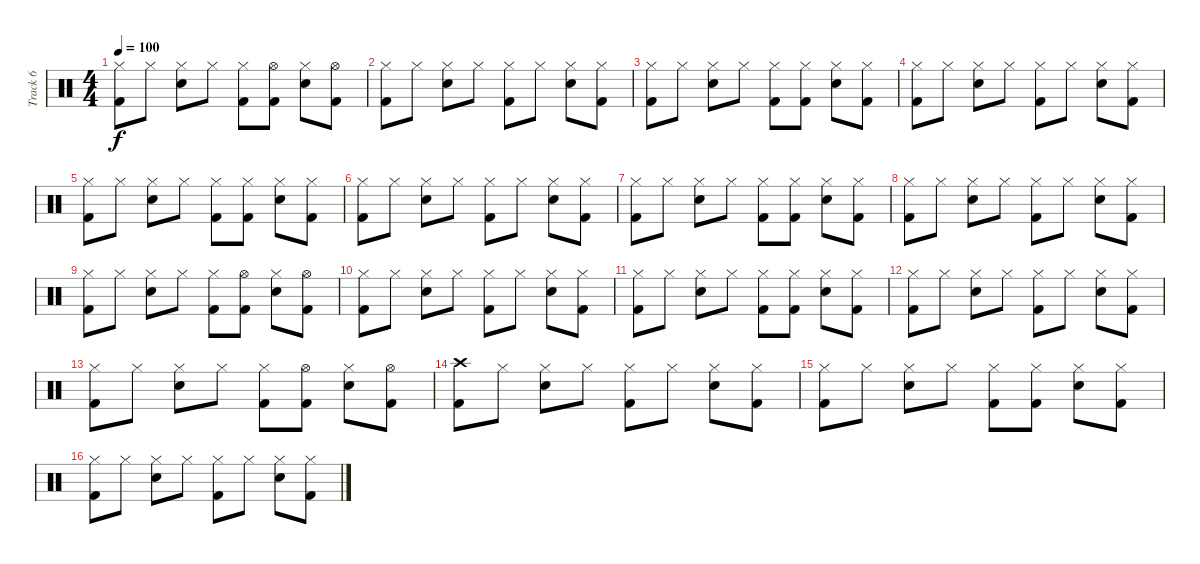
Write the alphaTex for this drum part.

\track ("Track 6" "Track 6") {instrument percussion}
\staff {score}
\articulation defaults
\ts (4 4)
\tempo 100
\clef neutral
\ks c
("Hi-Hat (closed)" "Kick (hit) 2").8{dy f} "Hi-Hat (closed)".8 ("Hi-Hat (closed)" "Electric Snare (hit)").8 "Hi-Hat (closed)".8 ("Hi-Hat (closed)" "Kick (hit) 2").8 ("Hi-Hat (open)" "Kick (hit) 2").8 ("Hi-Hat (closed)" "Electric Snare (hit)").8 ("Hi-Hat (open)" "Kick (hit) 2").8 |
("Hi-Hat (closed)" "Kick (hit) 2").8 "Hi-Hat (closed)".8 ("Hi-Hat (closed)" "Electric Snare (hit)").8 "Hi-Hat (closed)".8 ("Hi-Hat (closed)" "Kick (hit) 2").8 "Hi-Hat (closed)".8 ("Hi-Hat (closed)" "Electric Snare (hit)").8 ("Hi-Hat (closed)" "Kick (hit) 2").8 |
("Hi-Hat (closed)" "Kick (hit) 2").8 "Hi-Hat (closed)".8 ("Hi-Hat (closed)" "Electric Snare (hit)").8 "Hi-Hat (closed)".8 ("Hi-Hat (closed)" "Kick (hit) 2").8 ("Hi-Hat (closed)" "Kick (hit) 2").8 ("Hi-Hat (closed)" "Electric Snare (hit)").8 ("Hi-Hat (closed)" "Kick (hit) 2").8 |
("Hi-Hat (closed)" "Kick (hit) 2").8 "Hi-Hat (closed)".8 ("Hi-Hat (closed)" "Electric Snare (hit)").8 "Hi-Hat (closed)".8 ("Hi-Hat (closed)" "Kick (hit) 2").8 "Hi-Hat (closed)".8 ("Hi-Hat (closed)" "Electric Snare (hit)").8 ("Hi-Hat (closed)" "Kick (hit) 2").8 |
("Hi-Hat (closed)" "Kick (hit) 2").8 "Hi-Hat (closed)".8 ("Hi-Hat (closed)" "Electric Snare (hit)").8 "Hi-Hat (closed)".8 ("Hi-Hat (closed)" "Kick (hit) 2").8 ("Hi-Hat (closed)" "Kick (hit) 2").8 ("Hi-Hat (closed)" "Electric Snare (hit)").8 ("Hi-Hat (closed)" "Kick (hit) 2").8 |
("Hi-Hat (closed)" "Kick (hit) 2").8 "Hi-Hat (closed)".8 ("Hi-Hat (closed)" "Electric Snare (hit)").8 "Hi-Hat (closed)".8 ("Hi-Hat (closed)" "Kick (hit) 2").8 "Hi-Hat (closed)".8 ("Hi-Hat (closed)" "Electric Snare (hit)").8 ("Hi-Hat (closed)" "Kick (hit) 2").8 |
("Hi-Hat (closed)" "Kick (hit) 2").8 "Hi-Hat (closed)".8 ("Hi-Hat (closed)" "Electric Snare (hit)").8 "Hi-Hat (closed)".8 ("Hi-Hat (closed)" "Kick (hit) 2").8 ("Hi-Hat (closed)" "Kick (hit) 2").8 ("Hi-Hat (closed)" "Electric Snare (hit)").8 ("Hi-Hat (closed)" "Kick (hit) 2").8 |
("Hi-Hat (closed)" "Kick (hit) 2").8 "Hi-Hat (closed)".8 ("Hi-Hat (closed)" "Electric Snare (hit)").8 "Hi-Hat (closed)".8 ("Hi-Hat (closed)" "Kick (hit) 2").8 "Hi-Hat (closed)".8 ("Hi-Hat (closed)" "Electric Snare (hit)").8 ("Hi-Hat (closed)" "Kick (hit) 2").8 |
("Hi-Hat (closed)" "Kick (hit) 2").8 "Hi-Hat (closed)".8 ("Hi-Hat (closed)" "Electric Snare (hit)").8 "Hi-Hat (closed)".8 ("Hi-Hat (closed)" "Kick (hit) 2").8 ("Hi-Hat (open)" "Kick (hit) 2").8 ("Hi-Hat (closed)" "Electric Snare (hit)").8 ("Hi-Hat (open)" "Kick (hit) 2").8 |
("Hi-Hat (closed)" "Kick (hit) 2").8 "Hi-Hat (closed)".8 ("Hi-Hat (closed)" "Electric Snare (hit)").8 "Hi-Hat (closed)".8 ("Hi-Hat (closed)" "Kick (hit) 2").8 "Hi-Hat (closed)".8 ("Hi-Hat (closed)" "Electric Snare (hit)").8 ("Hi-Hat (closed)" "Kick (hit) 2").8 |
("Hi-Hat (closed)" "Kick (hit) 2").8 "Hi-Hat (closed)".8 ("Hi-Hat (closed)" "Electric Snare (hit)").8 "Hi-Hat (closed)".8 ("Hi-Hat (closed)" "Kick (hit) 2").8 ("Hi-Hat (closed)" "Kick (hit) 2").8 ("Hi-Hat (closed)" "Electric Snare (hit)").8 ("Hi-Hat (closed)" "Kick (hit) 2").8 |
("Hi-Hat (closed)" "Kick (hit) 2").8 "Hi-Hat (closed)".8 ("Hi-Hat (closed)" "Electric Snare (hit)").8 "Hi-Hat (closed)".8 ("Hi-Hat (closed)" "Kick (hit) 2").8 "Hi-Hat (closed)".8 ("Hi-Hat (closed)" "Electric Snare (hit)").8 ("Hi-Hat (closed)" "Kick (hit) 2").8 |
("Hi-Hat (closed)" "Kick (hit) 2").8 "Hi-Hat (closed)".8 ("Hi-Hat (closed)" "Electric Snare (hit)").8 "Hi-Hat (closed)".8 ("Hi-Hat (closed)" "Kick (hit) 2").8 ("Hi-Hat (open)" "Kick (hit) 2").8 ("Hi-Hat (closed)" "Electric Snare (hit)").8 ("Hi-Hat (open)" "Kick (hit) 2").8 |
("Crash high (hit)" "Kick (hit) 2").8 "Hi-Hat (closed)".8 ("Hi-Hat (closed)" "Electric Snare (hit)").8 "Hi-Hat (closed)".8 ("Hi-Hat (closed)" "Kick (hit) 2").8 "Hi-Hat (closed)".8 ("Hi-Hat (closed)" "Electric Snare (hit)").8 ("Hi-Hat (closed)" "Kick (hit) 2").8 |
("Hi-Hat (closed)" "Kick (hit) 2").8 "Hi-Hat (closed)".8 ("Hi-Hat (closed)" "Electric Snare (hit)").8 "Hi-Hat (closed)".8 ("Hi-Hat (closed)" "Kick (hit) 2").8 ("Hi-Hat (closed)" "Kick (hit) 2").8 ("Hi-Hat (closed)" "Electric Snare (hit)").8 ("Hi-Hat (closed)" "Kick (hit) 2").8 |
("Hi-Hat (closed)" "Kick (hit) 2").8 "Hi-Hat (closed)".8 ("Hi-Hat (closed)" "Electric Snare (hit)").8 "Hi-Hat (closed)".8 ("Hi-Hat (closed)" "Kick (hit) 2").8 "Hi-Hat (closed)".8 ("Hi-Hat (closed)" "Electric Snare (hit)").8 ("Hi-Hat (closed)" "Kick (hit) 2").8
